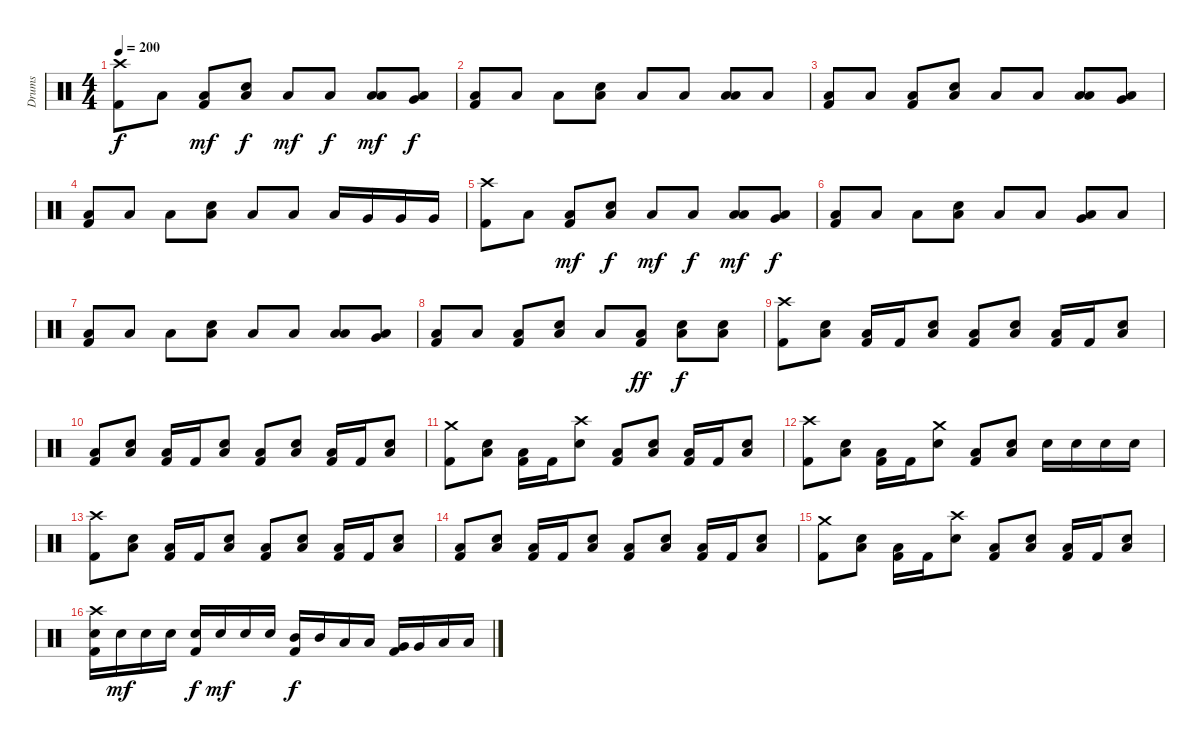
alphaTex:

\track ("Drums" "Drums") {instrument percussion}
\staff {score}
\articulation defaults
\ts (4 4)
\tempo 200
\clef neutral
\ks c
("Crash high (hit)" "Kick (hit) 2").8{dy f} "Low Floor Tom (hit)".8 ("Low Floor Tom (hit)" "Kick (hit) 2").8{dy mf} ("Low Floor Tom (hit)" "Electric Snare (hit)").8{dy f} "Low Floor Tom (hit)".8{dy mf} "Low Floor Tom (hit)".8{dy f} ("Low Floor Tom (hit)" "Low Tom (hit)").8{dy mf} ("Low Floor Tom (hit)" "Very Low Tom (hit)").8{dy f} |
("Low Floor Tom (hit)" "Kick (hit) 2").8 "Low Floor Tom (hit)".8 "Low Floor Tom (hit)".8 ("Low Floor Tom (hit)" "Electric Snare (hit)").8 "Low Floor Tom (hit)".8 "Low Floor Tom (hit)".8 ("Low Floor Tom (hit)" "Low Tom (hit)").8 "Low Floor Tom (hit)".8 |
("Low Floor Tom (hit)" "Kick (hit) 2").8 "Low Floor Tom (hit)".8 ("Low Floor Tom (hit)" "Kick (hit) 2").8 ("Low Floor Tom (hit)" "Electric Snare (hit)").8 "Low Floor Tom (hit)".8 "Low Floor Tom (hit)".8 ("Low Floor Tom (hit)" "Low Tom (hit)").8 ("Low Floor Tom (hit)" "Very Low Tom (hit)").8 |
("Low Floor Tom (hit)" "Kick (hit) 2").8 "Low Floor Tom (hit)".8 "Low Floor Tom (hit)".8 ("Low Floor Tom (hit)" "Electric Snare (hit)").8 "Low Floor Tom (hit)".8 "Low Tom (hit)".8 "Low Tom (hit)".16 "Very Low Tom (hit)".16 "Very Low Tom (hit)".16 "Very Low Tom (hit)".16 |
("Crash high (hit)" "Kick (hit) 2").8 "Low Floor Tom (hit)".8 ("Low Floor Tom (hit)" "Kick (hit) 2").8{dy mf} ("Low Floor Tom (hit)" "Electric Snare (hit)").8{dy f} "Low Floor Tom (hit)".8{dy mf} "Low Floor Tom (hit)".8{dy f} ("Low Floor Tom (hit)" "Low Tom (hit)").8{dy mf} ("Low Floor Tom (hit)" "Very Low Tom (hit)").8{dy f} |
("Low Floor Tom (hit)" "Kick (hit) 2").8 "Low Floor Tom (hit)".8 "Low Floor Tom (hit)".8 ("Low Floor Tom (hit)" "Electric Snare (hit)").8 "Low Floor Tom (hit)".8 "Low Floor Tom (hit)".8 ("Low Floor Tom (hit)" "Very Low Tom (hit)").8 "Low Floor Tom (hit)".8 |
("Low Floor Tom (hit)" "Kick (hit) 2").8 "Low Floor Tom (hit)".8 "Low Floor Tom (hit)".8 ("Low Floor Tom (hit)" "Electric Snare (hit)").8 "Low Floor Tom (hit)".8 "Low Floor Tom (hit)".8 ("Low Floor Tom (hit)" "Low Tom (hit)").8 ("Low Floor Tom (hit)" "Very Low Tom (hit)").8 |
("Low Floor Tom (hit)" "Kick (hit) 2").8 "Low Floor Tom (hit)".8 ("Low Floor Tom (hit)" "Kick (hit) 2").8 ("Low Floor Tom (hit)" "Electric Snare (hit)").8 "Low Floor Tom (hit)".8 ("Low Floor Tom (hit)" "Kick (hit) 2").8{dy ff} ("Low Floor Tom (hit)" "Electric Snare (hit)").8{dy f} ("Low Floor Tom (hit)" "Electric Snare (hit)").8 |
("Crash high (hit)" "Kick (hit) 2").8 ("Low Floor Tom (hit)" "Electric Snare (hit)").8 ("Low Floor Tom (hit)" "Kick (hit) 2").16 "Kick (hit) 2".16 ("Low Floor Tom (hit)" "Electric Snare (hit)").8 ("Low Floor Tom (hit)" "Kick (hit) 2").8 ("Low Floor Tom (hit)" "Electric Snare (hit)").8 ("Low Floor Tom (hit)" "Kick (hit) 2").16 "Kick (hit) 2".16 ("Low Floor Tom (hit)" "Electric Snare (hit)").8 |
("Low Floor Tom (hit)" "Kick (hit) 2").8 ("Low Floor Tom (hit)" "Electric Snare (hit)").8 ("Low Floor Tom (hit)" "Kick (hit) 2").16 "Kick (hit) 2".16 ("Low Floor Tom (hit)" "Electric Snare (hit)").8 ("Low Floor Tom (hit)" "Kick (hit) 2").8 ("Low Floor Tom (hit)" "Electric Snare (hit)").8 ("Low Floor Tom (hit)" "Kick (hit) 2").16 "Kick (hit) 2".16 ("Low Floor Tom (hit)" "Electric Snare (hit)").8 |
("Crash medium (hit)" "Kick (hit) 2").8 ("Low Floor Tom (hit)" "Electric Snare (hit)").8 ("Low Floor Tom (hit)" "Kick (hit) 2").16 "Kick (hit) 2".16 ("Crash high (hit)" "Electric Snare (hit)").8 ("Low Floor Tom (hit)" "Kick (hit) 2").8 ("Low Floor Tom (hit)" "Electric Snare (hit)").8 ("Low Floor Tom (hit)" "Kick (hit) 2").16 "Kick (hit) 2".16 ("Low Floor Tom (hit)" "Electric Snare (hit)").8 |
("Crash high (hit)" "Kick (hit) 2").8 ("Low Floor Tom (hit)" "Electric Snare (hit)").8 ("Low Floor Tom (hit)" "Kick (hit) 2").16 "Kick (hit) 2".16 ("Crash medium (hit)" "Electric Snare (hit)").8 ("Low Floor Tom (hit)" "Kick (hit) 2").8 ("Low Floor Tom (hit)" "Electric Snare (hit)").8 "Electric Snare (hit)".16 "Electric Snare (hit)".16 "Electric Snare (hit)".16 "Electric Snare (hit)".16 |
("Crash high (hit)" "Kick (hit) 2").8 ("Low Floor Tom (hit)" "Electric Snare (hit)").8 ("Low Floor Tom (hit)" "Kick (hit) 2").16 "Kick (hit) 2".16 ("Low Floor Tom (hit)" "Electric Snare (hit)").8 ("Low Floor Tom (hit)" "Kick (hit) 2").8 ("Low Floor Tom (hit)" "Electric Snare (hit)").8 ("Low Floor Tom (hit)" "Kick (hit) 2").16 "Kick (hit) 2".16 ("Low Floor Tom (hit)" "Electric Snare (hit)").8 |
("Low Floor Tom (hit)" "Kick (hit) 2").8 ("Low Floor Tom (hit)" "Electric Snare (hit)").8 ("Low Floor Tom (hit)" "Kick (hit) 2").16 "Kick (hit) 2".16 ("Low Floor Tom (hit)" "Electric Snare (hit)").8 ("Low Floor Tom (hit)" "Kick (hit) 2").8 ("Low Floor Tom (hit)" "Electric Snare (hit)").8 ("Low Floor Tom (hit)" "Kick (hit) 2").16 "Kick (hit) 2".16 ("Low Floor Tom (hit)" "Electric Snare (hit)").8 |
("Crash medium (hit)" "Kick (hit) 2").8 ("Low Floor Tom (hit)" "Electric Snare (hit)").8 ("Low Floor Tom (hit)" "Kick (hit) 2").16 "Kick (hit) 2".16 ("Crash high (hit)" "Electric Snare (hit)").8 ("Low Floor Tom (hit)" "Kick (hit) 2").8 ("Low Floor Tom (hit)" "Electric Snare (hit)").8 ("Low Floor Tom (hit)" "Kick (hit) 2").16 "Kick (hit) 2".16 ("Low Floor Tom (hit)" "Electric Snare (hit)").8 |
("Crash high (hit)" "Electric Snare (hit)" "Kick (hit) 2").16 "Electric Snare (hit)".16{dy mf} "Electric Snare (hit)".16 "Electric Snare (hit)".16 ("Electric Snare (hit)" "Kick (hit) 2").16{dy f} "Electric Snare (hit)".16{dy mf} "Electric Snare (hit)".16 "Electric Snare (hit)".16 ("Mid Tom (hit)" "Kick (hit) 2").16{dy f} "Mid Tom (hit)".16 "Low Tom (hit)".16 "Low Tom (hit)".16 ("Very Low Tom (hit)" "Kick (hit) 2").16 "Very Low Tom (hit)".16 "Low Floor Tom (hit)".16 "Low Floor Tom (hit)".16
